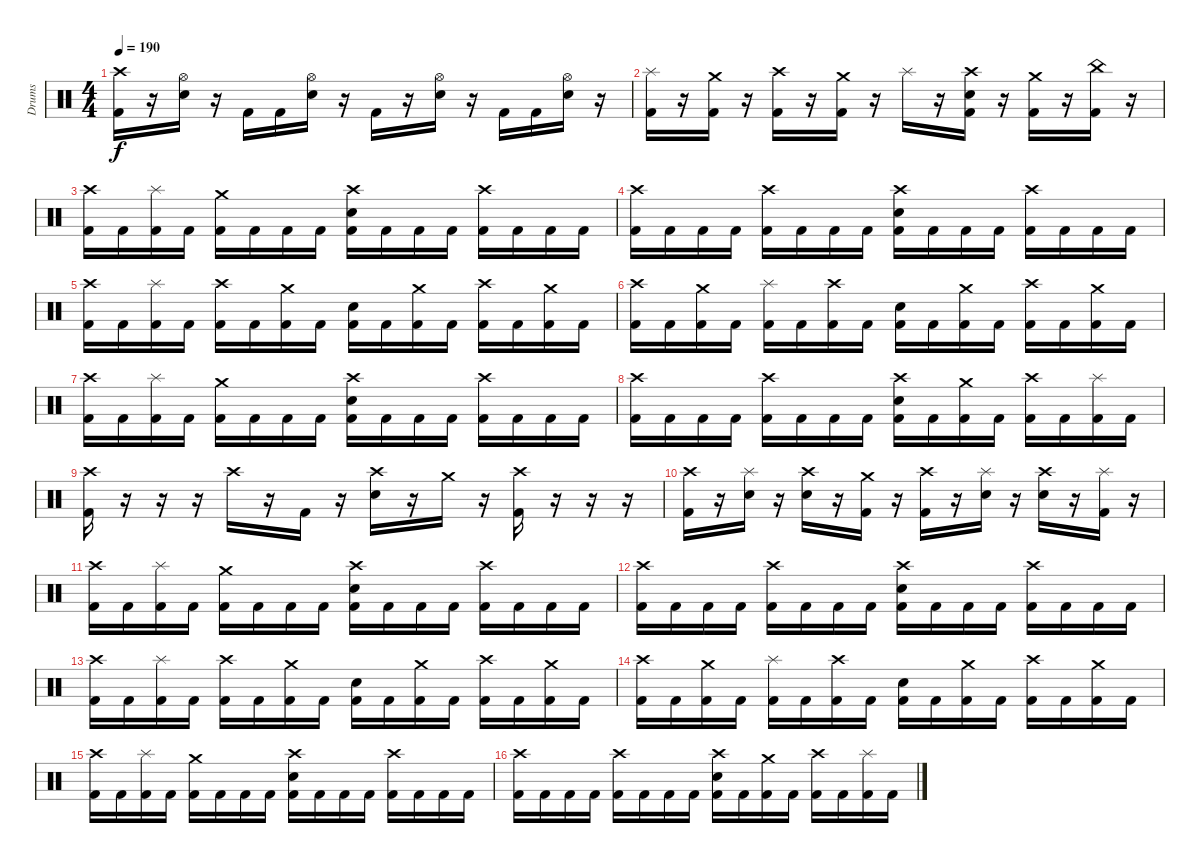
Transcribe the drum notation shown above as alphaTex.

\track ("Drums" "Drums") {instrument percussion}
\staff {score}
\articulation defaults
\ts (4 4)
\tempo 190
\clef neutral
\ks c
("Crash high (hit)" "Kick (hit) 2").16{dy f} r.16 ("Hi-Hat (open)" "Electric Snare (hit)").16 r.16 "Kick (hit) 2".16 "Kick (hit) 2".16 ("Hi-Hat (open)" "Electric Snare (hit)").16 r.16 "Kick (hit) 2".16 r.16 ("Hi-Hat (open)" "Electric Snare (hit)").16 r.16 "Kick (hit) 2".16 "Kick (hit) 2".16 ("Hi-Hat (open)" "Electric Snare (hit)").16 r.16 |
("Splash (hit)" "Kick (hit) 2").16 r.16 ("Crash medium (hit)" "Kick (hit) 2").16 r.16 ("Crash high (hit)" "Kick (hit) 2").16 r.16 ("Crash medium (hit)" "Kick (hit) 2").16 r.16 "Splash (hit)".16 r.16 ("Crash high (hit)" "Electric Snare (hit)" "Kick (hit) 2").16 r.16 ("Crash medium (hit)" "Kick (hit) 2").16 r.16 ("China (hit)" "Kick (hit) 2").16 r.16 |
("Crash high (hit)" "Kick (hit) 2").16 "Kick (hit) 2".16 ("Splash (hit)" "Kick (hit) 2").16 "Kick (hit) 2".16 ("Crash medium (hit)" "Kick (hit) 2").16 "Kick (hit) 2".16 "Kick (hit) 2".16 "Kick (hit) 2".16 ("Crash high (hit)" "Electric Snare (hit)" "Kick (hit) 2").16 "Kick (hit) 2".16 "Kick (hit) 2".16 "Kick (hit) 2".16 ("Crash high (hit)" "Kick (hit) 2").16 "Kick (hit) 2".16 "Kick (hit) 2".16 "Kick (hit) 2".16 |
("Crash high (hit)" "Kick (hit) 2").16 "Kick (hit) 2".16 "Kick (hit) 2".16 "Kick (hit) 2".16 ("Crash high (hit)" "Kick (hit) 2").16 "Kick (hit) 2".16 "Kick (hit) 2".16 "Kick (hit) 2".16 ("Crash high (hit)" "Electric Snare (hit)" "Kick (hit) 2").16 "Kick (hit) 2".16 "Kick (hit) 2".16 "Kick (hit) 2".16 ("Crash high (hit)" "Kick (hit) 2").16 "Kick (hit) 2".16 "Kick (hit) 2".16 "Kick (hit) 2".16 |
("Crash high (hit)" "Kick (hit) 2").16 "Kick (hit) 2".16 ("Splash (hit)" "Kick (hit) 2").16 "Kick (hit) 2".16 ("Crash high (hit)" "Kick (hit) 2").16 "Kick (hit) 2".16 ("Crash medium (hit)" "Kick (hit) 2").16 "Kick (hit) 2".16 ("Electric Snare (hit)" "Kick (hit) 2").16 "Kick (hit) 2".16 ("Crash medium (hit)" "Kick (hit) 2").16 "Kick (hit) 2".16 ("Crash high (hit)" "Kick (hit) 2").16 "Kick (hit) 2".16 ("Crash medium (hit)" "Kick (hit) 2").16 "Kick (hit) 2".16 |
("Crash high (hit)" "Kick (hit) 2").16 "Kick (hit) 2".16 ("Crash medium (hit)" "Kick (hit) 2").16 "Kick (hit) 2".16 ("Splash (hit)" "Kick (hit) 2").16 "Kick (hit) 2".16 ("Crash high (hit)" "Kick (hit) 2").16 "Kick (hit) 2".16 ("Electric Snare (hit)" "Kick (hit) 2").16 "Kick (hit) 2".16 ("Crash medium (hit)" "Kick (hit) 2").16 "Kick (hit) 2".16 ("Crash high (hit)" "Kick (hit) 2").16 "Kick (hit) 2".16 ("Crash medium (hit)" "Kick (hit) 2").16 "Kick (hit) 2".16 |
("Crash high (hit)" "Kick (hit) 2").16 "Kick (hit) 2".16 ("Splash (hit)" "Kick (hit) 2").16 "Kick (hit) 2".16 ("Crash medium (hit)" "Kick (hit) 2").16 "Kick (hit) 2".16 "Kick (hit) 2".16 "Kick (hit) 2".16 ("Crash high (hit)" "Electric Snare (hit)" "Kick (hit) 2").16 "Kick (hit) 2".16 "Kick (hit) 2".16 "Kick (hit) 2".16 ("Crash high (hit)" "Kick (hit) 2").16 "Kick (hit) 2".16 "Kick (hit) 2".16 "Kick (hit) 2".16 |
("Crash high (hit)" "Kick (hit) 2").16 "Kick (hit) 2".16 "Kick (hit) 2".16 "Kick (hit) 2".16 ("Crash high (hit)" "Kick (hit) 2").16 "Kick (hit) 2".16 "Kick (hit) 2".16 "Kick (hit) 2".16 ("Crash high (hit)" "Electric Snare (hit)" "Kick (hit) 2").16 "Kick (hit) 2".16 ("Crash medium (hit)" "Kick (hit) 2").16 "Kick (hit) 2".16 ("Crash high (hit)" "Kick (hit) 2").16 "Kick (hit) 2".16 ("Splash (hit)" "Kick (hit) 2").16 "Kick (hit) 2".16 |
("Crash high (hit)" "Kick (hit) 2").16 r.16 r.16 r.16 "Crash high (hit)".16 r.16 "Kick (hit) 2".16 r.16 ("Crash high (hit)" "Electric Snare (hit)").16 r.16 "Crash medium (hit)".16 r.16 ("Crash high (hit)" "Kick (hit) 2").16 r.16 r.16 r.16 |
("Crash high (hit)" "Kick (hit) 2").16 r.16 ("Splash (hit)" "Electric Snare (hit)").16 r.16 ("Crash high (hit)" "Electric Snare (hit)").16 r.16 ("Crash medium (hit)" "Kick (hit) 2").16 r.16 ("Crash high (hit)" "Kick (hit) 2").16 r.16 ("Splash (hit)" "Electric Snare (hit)").16 r.16 ("Crash high (hit)" "Electric Snare (hit)").16 r.16 ("Splash (hit)" "Kick (hit) 2").16 r.16 |
("Crash high (hit)" "Kick (hit) 2").16 "Kick (hit) 2".16 ("Splash (hit)" "Kick (hit) 2").16 "Kick (hit) 2".16 ("Crash medium (hit)" "Kick (hit) 2").16 "Kick (hit) 2".16 "Kick (hit) 2".16 "Kick (hit) 2".16 ("Crash high (hit)" "Electric Snare (hit)" "Kick (hit) 2").16 "Kick (hit) 2".16 "Kick (hit) 2".16 "Kick (hit) 2".16 ("Crash high (hit)" "Kick (hit) 2").16 "Kick (hit) 2".16 "Kick (hit) 2".16 "Kick (hit) 2".16 |
("Crash high (hit)" "Kick (hit) 2").16 "Kick (hit) 2".16 "Kick (hit) 2".16 "Kick (hit) 2".16 ("Crash high (hit)" "Kick (hit) 2").16 "Kick (hit) 2".16 "Kick (hit) 2".16 "Kick (hit) 2".16 ("Crash high (hit)" "Electric Snare (hit)" "Kick (hit) 2").16 "Kick (hit) 2".16 "Kick (hit) 2".16 "Kick (hit) 2".16 ("Crash high (hit)" "Kick (hit) 2").16 "Kick (hit) 2".16 "Kick (hit) 2".16 "Kick (hit) 2".16 |
("Crash high (hit)" "Kick (hit) 2").16 "Kick (hit) 2".16 ("Splash (hit)" "Kick (hit) 2").16 "Kick (hit) 2".16 ("Crash high (hit)" "Kick (hit) 2").16 "Kick (hit) 2".16 ("Crash medium (hit)" "Kick (hit) 2").16 "Kick (hit) 2".16 ("Electric Snare (hit)" "Kick (hit) 2").16 "Kick (hit) 2".16 ("Crash medium (hit)" "Kick (hit) 2").16 "Kick (hit) 2".16 ("Crash high (hit)" "Kick (hit) 2").16 "Kick (hit) 2".16 ("Crash medium (hit)" "Kick (hit) 2").16 "Kick (hit) 2".16 |
("Crash high (hit)" "Kick (hit) 2").16 "Kick (hit) 2".16 ("Crash medium (hit)" "Kick (hit) 2").16 "Kick (hit) 2".16 ("Splash (hit)" "Kick (hit) 2").16 "Kick (hit) 2".16 ("Crash high (hit)" "Kick (hit) 2").16 "Kick (hit) 2".16 ("Electric Snare (hit)" "Kick (hit) 2").16 "Kick (hit) 2".16 ("Crash medium (hit)" "Kick (hit) 2").16 "Kick (hit) 2".16 ("Crash high (hit)" "Kick (hit) 2").16 "Kick (hit) 2".16 ("Crash medium (hit)" "Kick (hit) 2").16 "Kick (hit) 2".16 |
("Crash high (hit)" "Kick (hit) 2").16 "Kick (hit) 2".16 ("Splash (hit)" "Kick (hit) 2").16 "Kick (hit) 2".16 ("Crash medium (hit)" "Kick (hit) 2").16 "Kick (hit) 2".16 "Kick (hit) 2".16 "Kick (hit) 2".16 ("Crash high (hit)" "Electric Snare (hit)" "Kick (hit) 2").16 "Kick (hit) 2".16 "Kick (hit) 2".16 "Kick (hit) 2".16 ("Crash high (hit)" "Kick (hit) 2").16 "Kick (hit) 2".16 "Kick (hit) 2".16 "Kick (hit) 2".16 |
("Crash high (hit)" "Kick (hit) 2").16 "Kick (hit) 2".16 "Kick (hit) 2".16 "Kick (hit) 2".16 ("Crash high (hit)" "Kick (hit) 2").16 "Kick (hit) 2".16 "Kick (hit) 2".16 "Kick (hit) 2".16 ("Crash high (hit)" "Electric Snare (hit)" "Kick (hit) 2").16 "Kick (hit) 2".16 ("Crash medium (hit)" "Kick (hit) 2").16 "Kick (hit) 2".16 ("Crash high (hit)" "Kick (hit) 2").16 "Kick (hit) 2".16 ("Splash (hit)" "Kick (hit) 2").16 "Kick (hit) 2".16
